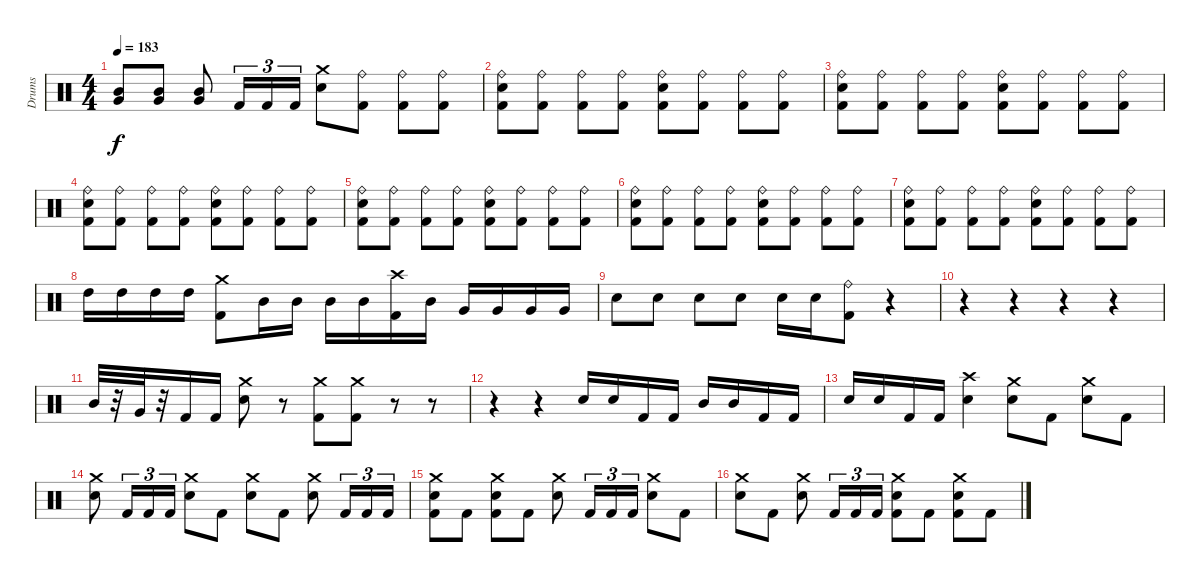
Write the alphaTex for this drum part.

\track ("Drums" "Drums") {instrument percussion}
\staff {score}
\articulation defaults
\ts (4 4)
\tempo 183
\clef neutral
\ks c
("Mid Tom (hit)" "Very Low Tom (hit)").8{dy f} ("Mid Tom (hit)" "Very Low Tom (hit)").8 ("Mid Tom (hit)" "Very Low Tom (hit)").8 "Kick (hit) 2".16{tu (3 2)} "Kick (hit) 2".16{tu (3 2)} "Kick (hit) 2".16{tu (3 2)} ("Electric Snare (hit)" "Crash medium (hit)").8 ("Kick (hit) 2" "Ride (bell)").8 ("Kick (hit) 2" "Ride (bell)").8 ("Kick (hit) 2" "Ride (bell)").8 |
("Kick (hit) 2" "Electric Snare (hit)" "Ride (bell)").8 ("Kick (hit) 2" "Ride (bell)").8 ("Kick (hit) 2" "Ride (bell)").8 ("Kick (hit) 2" "Ride (bell)").8 ("Kick (hit) 2" "Electric Snare (hit)" "Ride (bell)").8 ("Kick (hit) 2" "Ride (bell)").8 ("Kick (hit) 2" "Ride (bell)").8 ("Kick (hit) 2" "Ride (bell)").8 |
("Kick (hit) 2" "Electric Snare (hit)" "Ride (bell)").8 ("Kick (hit) 2" "Ride (bell)").8 ("Kick (hit) 2" "Ride (bell)").8 ("Kick (hit) 2" "Ride (bell)").8 ("Kick (hit) 2" "Electric Snare (hit)" "Ride (bell)").8 ("Kick (hit) 2" "Ride (bell)").8 ("Kick (hit) 2" "Ride (bell)").8 ("Kick (hit) 2" "Ride (bell)").8 |
("Kick (hit) 2" "Electric Snare (hit)" "Ride (bell)").8 ("Kick (hit) 2" "Ride (bell)").8 ("Kick (hit) 2" "Ride (bell)").8 ("Kick (hit) 2" "Ride (bell)").8 ("Kick (hit) 2" "Electric Snare (hit)" "Ride (bell)").8 ("Kick (hit) 2" "Ride (bell)").8 ("Kick (hit) 2" "Ride (bell)").8 ("Kick (hit) 2" "Ride (bell)").8 |
("Kick (hit) 2" "Electric Snare (hit)" "Ride (bell)").8 ("Kick (hit) 2" "Ride (bell)").8 ("Kick (hit) 2" "Ride (bell)").8 ("Kick (hit) 2" "Ride (bell)").8 ("Kick (hit) 2" "Electric Snare (hit)" "Ride (bell)").8 ("Kick (hit) 2" "Ride (bell)").8 ("Kick (hit) 2" "Ride (bell)").8 ("Kick (hit) 2" "Ride (bell)").8 |
("Kick (hit) 2" "Electric Snare (hit)" "Ride (bell)").8 ("Kick (hit) 2" "Ride (bell)").8 ("Kick (hit) 2" "Ride (bell)").8 ("Kick (hit) 2" "Ride (bell)").8 ("Kick (hit) 2" "Electric Snare (hit)" "Ride (bell)").8 ("Kick (hit) 2" "Ride (bell)").8 ("Kick (hit) 2" "Ride (bell)").8 ("Kick (hit) 2" "Ride (bell)").8 |
("Kick (hit) 2" "Electric Snare (hit)" "Ride (bell)").8 ("Kick (hit) 2" "Ride (bell)").8 ("Kick (hit) 2" "Ride (bell)").8 ("Kick (hit) 2" "Ride (bell)").8 ("Kick (hit) 2" "Electric Snare (hit)" "Ride (bell)").8 ("Kick (hit) 2" "Ride (bell)").8 ("Kick (hit) 2" "Ride (bell)").8 ("Kick (hit) 2" "Ride (bell)").8 |
"High Tom (hit)".16 "High Tom (hit)".16 "High Tom (hit)".16 "High Tom (hit)".16 ("Kick (hit) 2" "Crash medium (hit)").8 "Mid Tom (hit)".16 "Mid Tom (hit)".16 "Mid Tom (hit)".16 "Mid Tom (hit)".16 ("Kick (hit) 2" "Crash high (hit)").16 "Mid Tom (hit)".16 "Very Low Tom (hit)".16 "Very Low Tom (hit)".16 "Very Low Tom (hit)".16 "Very Low Tom (hit)".16 |
"Electric Snare (hit)".8 "Electric Snare (hit)".8 "Electric Snare (hit)".8 "Electric Snare (hit)".8 "Electric Snare (hit)".16 "Electric Snare (hit)".16 ("Kick (hit) 2" "Ride (bell)").8 r.4 |
r.4 r.4 r.4 r.4 |
"Mid Tom (hit)".32 r.32 "Very Low Tom (hit)".32 r.32 "Kick (hit) 2".16 "Kick (hit) 2".16 ("Electric Snare (hit)" "Crash medium (hit)").8 r.8 ("Kick (hit) 2" "Crash medium (hit)").8 ("Kick (hit) 2" "Crash medium (hit)").8 r.8 r.8 |
r.4 r.4 "Electric Snare (hit)".16 "Electric Snare (hit)".16 "Kick (hit) 2".16 "Kick (hit) 2".16 "Mid Tom (hit)".16 "Mid Tom (hit)".16 "Kick (hit) 2".16 "Kick (hit) 2".16 |
"Electric Snare (hit)".16 "Electric Snare (hit)".16 "Kick (hit) 2".16 "Kick (hit) 2".16 ("Electric Snare (hit)" "Crash high (hit)").4 ("Electric Snare (hit)" "Crash medium (hit)").8 "Kick (hit) 2".8 ("Electric Snare (hit)" "Crash medium (hit)").8 "Kick (hit) 2".8 |
("Electric Snare (hit)" "Crash medium (hit)").8 "Kick (hit) 2".16{tu (3 2)} "Kick (hit) 2".16{tu (3 2)} "Kick (hit) 2".16{tu (3 2)} ("Electric Snare (hit)" "Crash medium (hit)").8 "Kick (hit) 2".8 ("Electric Snare (hit)" "Crash medium (hit)").8 "Kick (hit) 2".8 ("Electric Snare (hit)" "Crash medium (hit)").8 "Kick (hit) 2".16{tu (3 2)} "Kick (hit) 2".16{tu (3 2)} "Kick (hit) 2".16{tu (3 2)} |
("Kick (hit) 2" "Electric Snare (hit)" "Crash medium (hit)").8 "Kick (hit) 2".8 ("Kick (hit) 2" "Electric Snare (hit)" "Crash medium (hit)").8 "Kick (hit) 2".8 ("Electric Snare (hit)" "Crash medium (hit)").8 "Kick (hit) 2".16{tu (3 2)} "Kick (hit) 2".16{tu (3 2)} "Kick (hit) 2".16{tu (3 2)} ("Electric Snare (hit)" "Crash medium (hit)").8 "Kick (hit) 2".8 |
("Electric Snare (hit)" "Crash medium (hit)").8 "Kick (hit) 2".8 ("Electric Snare (hit)" "Crash medium (hit)").8 "Kick (hit) 2".16{tu (3 2)} "Kick (hit) 2".16{tu (3 2)} "Kick (hit) 2".16{tu (3 2)} ("Kick (hit) 2" "Electric Snare (hit)" "Crash medium (hit)").8 "Kick (hit) 2".8 ("Kick (hit) 2" "Electric Snare (hit)" "Crash medium (hit)").8 "Kick (hit) 2".8
